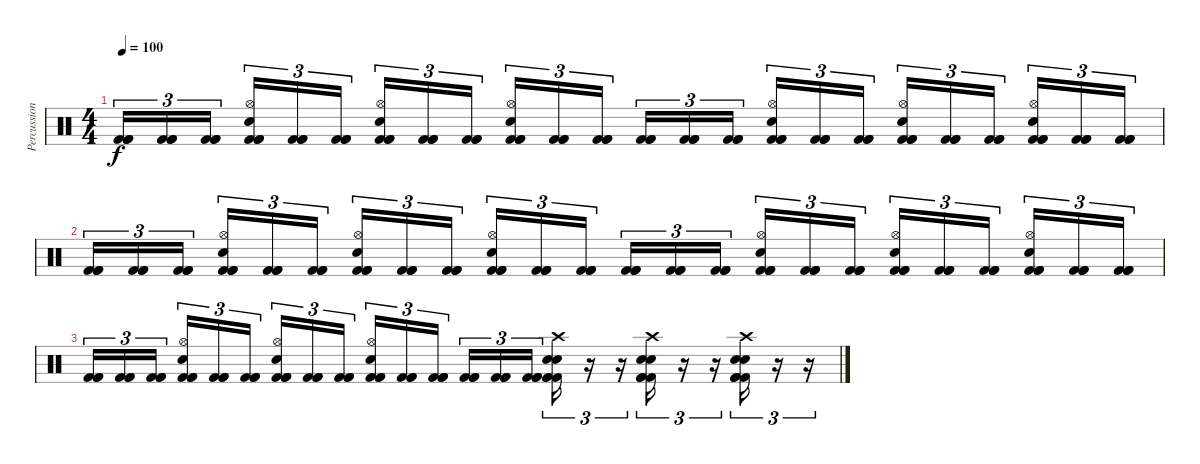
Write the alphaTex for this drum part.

\track ("Percussion" "Percussion") {instrument percussion}
\staff {score}
\articulation defaults
\ts (4 4)
\tempo 100
\clef neutral
\ks c
("Kick (hit) 2" "Kick (hit) 2" "Kick (hit) 2").16{tu (3 2) dy f} ("Kick (hit) 2" "Kick (hit) 2" "Kick (hit) 2").16{tu (3 2)} ("Kick (hit) 2" "Kick (hit) 2" "Kick (hit) 2").16{tu (3 2)} ("Kick (hit) 2" "Kick (hit) 2" "Kick (hit) 2" "Hi-Hat (open)" "Snare (hit) 2").16{tu (3 2)} ("Kick (hit) 2" "Kick (hit) 2" "Kick (hit) 2").16{tu (3 2)} ("Kick (hit) 2" "Kick (hit) 2" "Kick (hit) 2").16{tu (3 2)} ("Kick (hit) 2" "Kick (hit) 2" "Kick (hit) 2" "Hi-Hat (open)" "Snare (hit) 2").16{tu (3 2)} ("Kick (hit) 2" "Kick (hit) 2" "Kick (hit) 2").16{tu (3 2)} ("Kick (hit) 2" "Kick (hit) 2" "Kick (hit) 2").16{tu (3 2)} ("Kick (hit) 2" "Kick (hit) 2" "Kick (hit) 2" "Hi-Hat (open)" "Snare (hit) 2").16{tu (3 2)} ("Kick (hit) 2" "Kick (hit) 2" "Kick (hit) 2").16{tu (3 2)} ("Kick (hit) 2" "Kick (hit) 2" "Kick (hit) 2").16{tu (3 2)} ("Kick (hit) 2" "Kick (hit) 2" "Kick (hit) 2").16{tu (3 2)} ("Kick (hit) 2" "Kick (hit) 2" "Kick (hit) 2").16{tu (3 2)} ("Kick (hit) 2" "Kick (hit) 2" "Kick (hit) 2").16{tu (3 2)} ("Kick (hit) 2" "Kick (hit) 2" "Kick (hit) 2" "Hi-Hat (open)" "Snare (hit) 2").16{tu (3 2)} ("Kick (hit) 2" "Kick (hit) 2" "Kick (hit) 2").16{tu (3 2)} ("Kick (hit) 2" "Kick (hit) 2" "Kick (hit) 2").16{tu (3 2)} ("Kick (hit) 2" "Kick (hit) 2" "Kick (hit) 2" "Hi-Hat (open)" "Snare (hit) 2").16{tu (3 2)} ("Kick (hit) 2" "Kick (hit) 2" "Kick (hit) 2").16{tu (3 2)} ("Kick (hit) 2" "Kick (hit) 2" "Kick (hit) 2").16{tu (3 2)} ("Kick (hit) 2" "Kick (hit) 2" "Kick (hit) 2" "Hi-Hat (open)" "Snare (hit) 2").16{tu (3 2)} ("Kick (hit) 2" "Kick (hit) 2" "Kick (hit) 2").16{tu (3 2)} ("Kick (hit) 2" "Kick (hit) 2" "Kick (hit) 2").16{tu (3 2)} |
("Kick (hit) 2" "Kick (hit) 2" "Kick (hit) 2").16{tu (3 2)} ("Kick (hit) 2" "Kick (hit) 2" "Kick (hit) 2").16{tu (3 2)} ("Kick (hit) 2" "Kick (hit) 2" "Kick (hit) 2").16{tu (3 2)} ("Kick (hit) 2" "Kick (hit) 2" "Kick (hit) 2" "Hi-Hat (open)" "Snare (hit) 2").16{tu (3 2)} ("Kick (hit) 2" "Kick (hit) 2" "Kick (hit) 2").16{tu (3 2)} ("Kick (hit) 2" "Kick (hit) 2" "Kick (hit) 2").16{tu (3 2)} ("Kick (hit) 2" "Kick (hit) 2" "Kick (hit) 2" "Hi-Hat (open)" "Snare (hit) 2").16{tu (3 2)} ("Kick (hit) 2" "Kick (hit) 2" "Kick (hit) 2").16{tu (3 2)} ("Kick (hit) 2" "Kick (hit) 2" "Kick (hit) 2").16{tu (3 2)} ("Kick (hit) 2" "Kick (hit) 2" "Kick (hit) 2" "Hi-Hat (open)" "Snare (hit) 2").16{tu (3 2)} ("Kick (hit) 2" "Kick (hit) 2" "Kick (hit) 2").16{tu (3 2)} ("Kick (hit) 2" "Kick (hit) 2" "Kick (hit) 2").16{tu (3 2)} ("Kick (hit) 2" "Kick (hit) 2" "Kick (hit) 2").16{tu (3 2)} ("Kick (hit) 2" "Kick (hit) 2" "Kick (hit) 2").16{tu (3 2)} ("Kick (hit) 2" "Kick (hit) 2" "Kick (hit) 2").16{tu (3 2)} ("Kick (hit) 2" "Kick (hit) 2" "Kick (hit) 2" "Hi-Hat (open)" "Snare (hit) 2").16{tu (3 2)} ("Kick (hit) 2" "Kick (hit) 2" "Kick (hit) 2").16{tu (3 2)} ("Kick (hit) 2" "Kick (hit) 2" "Kick (hit) 2").16{tu (3 2)} ("Kick (hit) 2" "Kick (hit) 2" "Kick (hit) 2" "Hi-Hat (open)" "Snare (hit) 2").16{tu (3 2)} ("Kick (hit) 2" "Kick (hit) 2" "Kick (hit) 2").16{tu (3 2)} ("Kick (hit) 2" "Kick (hit) 2" "Kick (hit) 2").16{tu (3 2)} ("Kick (hit) 2" "Kick (hit) 2" "Kick (hit) 2" "Hi-Hat (open)" "Snare (hit) 2").16{tu (3 2)} ("Kick (hit) 2" "Kick (hit) 2" "Kick (hit) 2").16{tu (3 2)} ("Kick (hit) 2" "Kick (hit) 2" "Kick (hit) 2").16{tu (3 2)} |
("Kick (hit) 2" "Kick (hit) 2" "Kick (hit) 2").16{tu (3 2)} ("Kick (hit) 2" "Kick (hit) 2" "Kick (hit) 2").16{tu (3 2)} ("Kick (hit) 2" "Kick (hit) 2" "Kick (hit) 2").16{tu (3 2)} ("Kick (hit) 2" "Kick (hit) 2" "Kick (hit) 2" "Hi-Hat (open)" "Snare (hit) 2").16{tu (3 2)} ("Kick (hit) 2" "Kick (hit) 2" "Kick (hit) 2").16{tu (3 2)} ("Kick (hit) 2" "Kick (hit) 2" "Kick (hit) 2").16{tu (3 2)} ("Kick (hit) 2" "Kick (hit) 2" "Kick (hit) 2" "Hi-Hat (open)" "Snare (hit) 2").16{tu (3 2)} ("Kick (hit) 2" "Kick (hit) 2" "Kick (hit) 2").16{tu (3 2)} ("Kick (hit) 2" "Kick (hit) 2" "Kick (hit) 2").16{tu (3 2)} ("Kick (hit) 2" "Kick (hit) 2" "Kick (hit) 2" "Hi-Hat (open)" "Snare (hit) 2").16{tu (3 2)} ("Kick (hit) 2" "Kick (hit) 2" "Kick (hit) 2").16{tu (3 2)} ("Kick (hit) 2" "Kick (hit) 2" "Kick (hit) 2").16{tu (3 2)} ("Kick (hit) 2" "Kick (hit) 2" "Kick (hit) 2").16{tu (3 2)} ("Kick (hit) 2" "Kick (hit) 2" "Kick (hit) 2").16{tu (3 2)} ("Kick (hit) 2" "Kick (hit) 2" "Kick (hit) 2").16{tu (3 2)} ("Kick (hit) 2" "Kick (hit) 2" "Kick (hit) 2" "Crash high (hit)" "Snare (hit) 2" "Snare (hit) 2").16{tu (3 2)} r.16{tu (3 2)} r.16{tu (3 2)} ("Kick (hit) 2" "Kick (hit) 2" "Kick (hit) 2" "Crash high (hit)" "Snare (hit) 2" "Snare (hit) 2").16{tu (3 2)} r.16{tu (3 2)} r.16{tu (3 2)} ("Kick (hit) 2" "Kick (hit) 2" "Kick (hit) 2" "Crash high (hit)" "Snare (hit) 2" "Snare (hit) 2").16{tu (3 2)} r.16{tu (3 2)} r.16{tu (3 2)}
